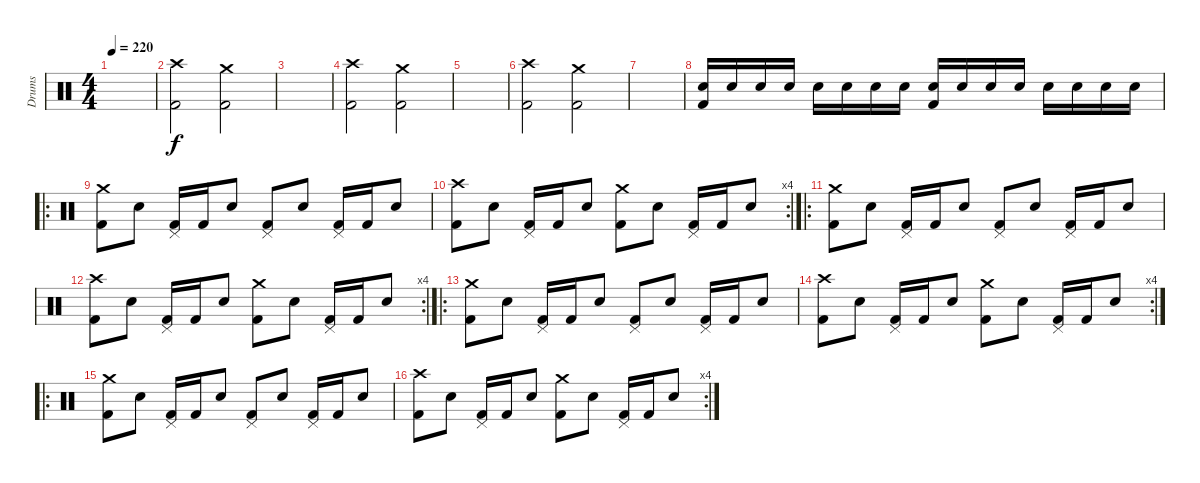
\track ("Drums" "Drums") {instrument percussion}
\staff {score}
\articulation defaults
\ts (4 4)
\tempo 220
\clef neutral
\ks c
|
("Crash high (hit)" "Kick (hit) 2").2 ("Crash medium (hit)" "Kick (hit) 2").2 |
|
("Crash high (hit)" "Kick (hit) 2").2 ("Crash medium (hit)" "Kick (hit) 2").2 |
|
("Crash high (hit)" "Kick (hit) 2").2 ("Crash medium (hit)" "Kick (hit) 2").2 |
|
("Electric Snare (hit)" "Kick (hit) 2").16 "Electric Snare (hit)".16 "Electric Snare (hit)".16 "Electric Snare (hit)".16 "Electric Snare (hit)".16 "Electric Snare (hit)".16 "Electric Snare (hit)".16 "Electric Snare (hit)".16 ("Electric Snare (hit)" "Kick (hit) 2").16 "Electric Snare (hit)".16 "Electric Snare (hit)".16 "Electric Snare (hit)".16 "Electric Snare (hit)".16 "Electric Snare (hit)".16 "Electric Snare (hit)".16 "Electric Snare (hit)".16 |
\ro
("Crash medium (hit)" "Kick (hit) 2").8 "Electric Snare (hit)".8 ("Pedal Hi-Hat (hit)" "Kick (hit) 2").16 "Kick (hit) 2".16 "Electric Snare (hit)".8 ("Pedal Hi-Hat (hit)" "Kick (hit) 2").8 "Electric Snare (hit)".8 ("Pedal Hi-Hat (hit)" "Kick (hit) 2").16 "Kick (hit) 2".16 "Electric Snare (hit)".8 |
\rc 4
("Crash high (hit)" "Kick (hit) 2").8 "Electric Snare (hit)".8 ("Pedal Hi-Hat (hit)" "Kick (hit) 2").16 "Kick (hit) 2".16 "Electric Snare (hit)".8 ("Crash medium (hit)" "Kick (hit) 2").8 "Electric Snare (hit)".8 ("Pedal Hi-Hat (hit)" "Kick (hit) 2").16 "Kick (hit) 2".16 "Electric Snare (hit)".8 |
\ro
("Crash medium (hit)" "Kick (hit) 2").8 "Electric Snare (hit)".8 ("Pedal Hi-Hat (hit)" "Kick (hit) 2").16 "Kick (hit) 2".16 "Electric Snare (hit)".8 ("Pedal Hi-Hat (hit)" "Kick (hit) 2").8 "Electric Snare (hit)".8 ("Pedal Hi-Hat (hit)" "Kick (hit) 2").16 "Kick (hit) 2".16 "Electric Snare (hit)".8 |
\rc 4
("Crash high (hit)" "Kick (hit) 2").8 "Electric Snare (hit)".8 ("Pedal Hi-Hat (hit)" "Kick (hit) 2").16 "Kick (hit) 2".16 "Electric Snare (hit)".8 ("Crash medium (hit)" "Kick (hit) 2").8 "Electric Snare (hit)".8 ("Pedal Hi-Hat (hit)" "Kick (hit) 2").16 "Kick (hit) 2".16 "Electric Snare (hit)".8 |
\ro
("Crash medium (hit)" "Kick (hit) 2").8 "Electric Snare (hit)".8 ("Pedal Hi-Hat (hit)" "Kick (hit) 2").16 "Kick (hit) 2".16 "Electric Snare (hit)".8 ("Pedal Hi-Hat (hit)" "Kick (hit) 2").8 "Electric Snare (hit)".8 ("Pedal Hi-Hat (hit)" "Kick (hit) 2").16 "Kick (hit) 2".16 "Electric Snare (hit)".8 |
\rc 4
("Crash high (hit)" "Kick (hit) 2").8 "Electric Snare (hit)".8 ("Pedal Hi-Hat (hit)" "Kick (hit) 2").16 "Kick (hit) 2".16 "Electric Snare (hit)".8 ("Crash medium (hit)" "Kick (hit) 2").8 "Electric Snare (hit)".8 ("Pedal Hi-Hat (hit)" "Kick (hit) 2").16 "Kick (hit) 2".16 "Electric Snare (hit)".8 |
\ro
("Crash medium (hit)" "Kick (hit) 2").8 "Electric Snare (hit)".8 ("Pedal Hi-Hat (hit)" "Kick (hit) 2").16 "Kick (hit) 2".16 "Electric Snare (hit)".8 ("Pedal Hi-Hat (hit)" "Kick (hit) 2").8 "Electric Snare (hit)".8 ("Pedal Hi-Hat (hit)" "Kick (hit) 2").16 "Kick (hit) 2".16 "Electric Snare (hit)".8 |
\rc 4
("Crash high (hit)" "Kick (hit) 2").8 "Electric Snare (hit)".8 ("Pedal Hi-Hat (hit)" "Kick (hit) 2").16 "Kick (hit) 2".16 "Electric Snare (hit)".8 ("Crash medium (hit)" "Kick (hit) 2").8 "Electric Snare (hit)".8 ("Pedal Hi-Hat (hit)" "Kick (hit) 2").16 "Kick (hit) 2".16 "Electric Snare (hit)".8
